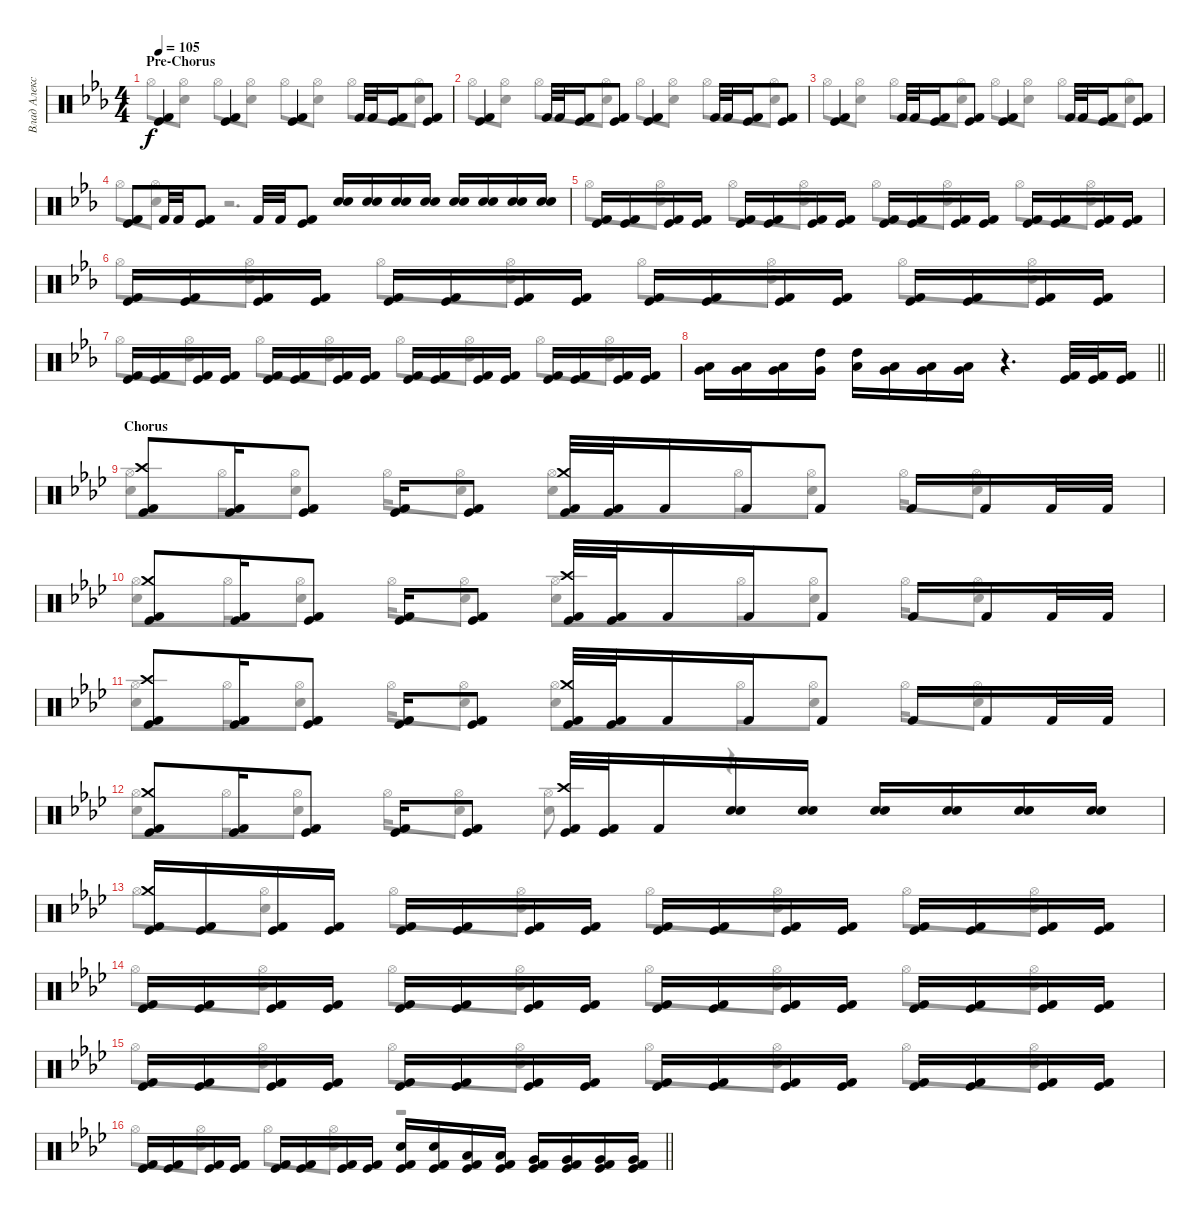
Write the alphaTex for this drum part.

\track ("Влад Алексеенко" "Влад Алекс") {instrument percussion}
\staff {score}
\articulation defaults
\voice
\ts (4 4)
\section ("" "Pre-Chorus")
\tempo 105
\clef neutral
\ks eb
("Kick (hit) 2" "Kick (hit)").4{dy f} ("Kick (hit) 2" "Kick (hit)").4 ("Kick (hit) 2" "Kick (hit)").4 "Kick (hit) 2".32 "Kick (hit) 2".32 ("Kick (hit) 2" "Kick (hit)").16 ("Kick (hit) 2" "Kick (hit)").8 |
("Kick (hit) 2" "Kick (hit)").4 "Kick (hit) 2".32 "Kick (hit) 2".32 ("Kick (hit) 2" "Kick (hit)").16 ("Kick (hit) 2" "Kick (hit)").8 ("Kick (hit) 2" "Kick (hit)").4 "Kick (hit) 2".32 "Kick (hit) 2".32 ("Kick (hit) 2" "Kick (hit)").16 ("Kick (hit) 2" "Kick (hit)").8 |
("Kick (hit) 2" "Kick (hit)").4 "Kick (hit) 2".32 "Kick (hit) 2".32 ("Kick (hit) 2" "Kick (hit)").16 ("Kick (hit) 2" "Kick (hit)").8 ("Kick (hit) 2" "Kick (hit)").4 "Kick (hit) 2".32 "Kick (hit) 2".32 ("Kick (hit) 2" "Kick (hit)").16 ("Kick (hit) 2" "Kick (hit)").8 |
("Kick (hit) 2" "Kick (hit)").8 "Kick (hit) 2".32 "Kick (hit) 2".32 ("Kick (hit) 2" "Kick (hit)").8 "Kick (hit) 2".32 "Kick (hit) 2".32 ("Kick (hit) 2" "Kick (hit)").8 ("Snare (hit) 2" "Snare (hit) 2").16 ("Snare (hit) 2" "Snare (hit) 2").16 ("Snare (hit) 2" "Snare (hit) 2").16 ("Snare (hit) 2" "Snare (hit) 2").16 ("Snare (hit) 2" "Snare (hit) 2").16 ("Snare (hit) 2" "Snare (hit) 2").16 ("Snare (hit) 2" "Snare (hit) 2").16 ("Snare (hit) 2" "Snare (hit) 2").16 |
("Kick (hit) 2" "Kick (hit)").16 ("Kick (hit) 2" "Kick (hit)").16 ("Kick (hit) 2" "Kick (hit)").16 ("Kick (hit) 2" "Kick (hit)").16 ("Kick (hit) 2" "Kick (hit)").16 ("Kick (hit) 2" "Kick (hit)").16 ("Kick (hit) 2" "Kick (hit)").16 ("Kick (hit) 2" "Kick (hit)").16 ("Kick (hit) 2" "Kick (hit)").16 ("Kick (hit) 2" "Kick (hit)").16 ("Kick (hit) 2" "Kick (hit)").16 ("Kick (hit) 2" "Kick (hit)").16 ("Kick (hit) 2" "Kick (hit)").16 ("Kick (hit) 2" "Kick (hit)").16 ("Kick (hit) 2" "Kick (hit)").16 ("Kick (hit) 2" "Kick (hit)").16 |
("Kick (hit) 2" "Kick (hit)").16 ("Kick (hit) 2" "Kick (hit)").16 ("Kick (hit) 2" "Kick (hit)").16 ("Kick (hit) 2" "Kick (hit)").16 ("Kick (hit) 2" "Kick (hit)").16 ("Kick (hit) 2" "Kick (hit)").16 ("Kick (hit) 2" "Kick (hit)").16 ("Kick (hit) 2" "Kick (hit)").16 ("Kick (hit) 2" "Kick (hit)").16 ("Kick (hit) 2" "Kick (hit)").16 ("Kick (hit) 2" "Kick (hit)").16 ("Kick (hit) 2" "Kick (hit)").16 ("Kick (hit) 2" "Kick (hit)").16 ("Kick (hit) 2" "Kick (hit)").16 ("Kick (hit) 2" "Kick (hit)").16 ("Kick (hit) 2" "Kick (hit)").16 |
("Kick (hit) 2" "Kick (hit)").16 ("Kick (hit) 2" "Kick (hit)").16 ("Kick (hit) 2" "Kick (hit)").16 ("Kick (hit) 2" "Kick (hit)").16 ("Kick (hit) 2" "Kick (hit)").16 ("Kick (hit) 2" "Kick (hit)").16 ("Kick (hit) 2" "Kick (hit)").16 ("Kick (hit) 2" "Kick (hit)").16 ("Kick (hit) 2" "Kick (hit)").16 ("Kick (hit) 2" "Kick (hit)").16 ("Kick (hit) 2" "Kick (hit)").16 ("Kick (hit) 2" "Kick (hit)").16 ("Kick (hit) 2" "Kick (hit)").16 ("Kick (hit) 2" "Kick (hit)").16 ("Kick (hit) 2" "Kick (hit)").16 ("Kick (hit) 2" "Kick (hit)").16 |
\barLineRight lightlight
("Low Tom (hit)" "Very Low Tom (hit)").16 ("Low Tom (hit)" "Very Low Tom (hit)").16 ("Very Low Tom (hit)" "Low Tom (hit)").16 ("Very Low Tom (hit)" "High Tom (hit)").16 ("Low Floor Tom (hit)" "High Tom (hit)").16 ("Very Low Tom (hit)" "Low Tom (hit)").16 ("Very Low Tom (hit)" "Low Tom (hit)").16 ("Low Tom (hit)" "Very Low Tom (hit)").16 r.4{d} ("Kick (hit) 2" "Kick (hit)").32 ("Kick (hit) 2" "Kick (hit)").32 ("Kick (hit) 2" "Kick (hit)").16 |
\section ("" "Chorus")
\ks ab
("Kick (hit) 2" "Kick (hit)" "Crash high (hit)").8 ("Kick (hit) 2" "Kick (hit)").16 ("Kick (hit) 2" "Kick (hit)").8 ("Kick (hit) 2" "Kick (hit)").16 ("Kick (hit) 2" "Kick (hit)").8 ("Kick (hit) 2" "Kick (hit)" "Crash medium (hit)").32 ("Kick (hit) 2" "Kick (hit)").32 "Kick (hit) 2".16 "Kick (hit) 2".16 "Kick (hit) 2".8 "Kick (hit) 2".16 "Kick (hit) 2".16 "Kick (hit) 2".32 "Kick (hit) 2".32 |
("Kick (hit) 2" "Kick (hit)" "Crash medium (hit)").8 ("Kick (hit) 2" "Kick (hit)").16 ("Kick (hit) 2" "Kick (hit)").8 ("Kick (hit) 2" "Kick (hit)").16 ("Kick (hit) 2" "Kick (hit)").8 ("Kick (hit) 2" "Kick (hit)" "Crash high (hit)").32 ("Kick (hit) 2" "Kick (hit)").32 "Kick (hit) 2".16 "Kick (hit) 2".16 "Kick (hit) 2".8 "Kick (hit) 2".16 "Kick (hit) 2".16 "Kick (hit) 2".32 "Kick (hit) 2".32 |
("Kick (hit) 2" "Kick (hit)" "Crash high (hit)").8 ("Kick (hit) 2" "Kick (hit)").16 ("Kick (hit) 2" "Kick (hit)").8 ("Kick (hit) 2" "Kick (hit)").16 ("Kick (hit) 2" "Kick (hit)").8 ("Kick (hit) 2" "Kick (hit)" "Crash medium (hit)").32 ("Kick (hit) 2" "Kick (hit)").32 "Kick (hit) 2".16 "Kick (hit) 2".16 "Kick (hit) 2".8 "Kick (hit) 2".16 "Kick (hit) 2".16 "Kick (hit) 2".32 "Kick (hit) 2".32 |
("Kick (hit) 2" "Kick (hit)" "Crash medium (hit)").8 ("Kick (hit) 2" "Kick (hit)").16 ("Kick (hit) 2" "Kick (hit)").8 ("Kick (hit) 2" "Kick (hit)").16 ("Kick (hit) 2" "Kick (hit)").8 ("Kick (hit) 2" "Kick (hit)" "Crash high (hit)").32 ("Kick (hit) 2" "Kick (hit)").32 "Kick (hit) 2".16 ("Snare (hit) 2" "Snare (hit) 2").16 ("Snare (hit) 2" "Snare (hit) 2").16 ("Snare (hit) 2" "Snare (hit) 2").16 ("Snare (hit) 2" "Snare (hit) 2").16 ("Snare (hit) 2" "Snare (hit) 2").16 ("Snare (hit) 2" "Snare (hit) 2").16 |
("Kick (hit) 2" "Kick (hit)" "Crash medium (hit)").16 ("Kick (hit) 2" "Kick (hit)").16 ("Kick (hit) 2" "Kick (hit)").16 ("Kick (hit) 2" "Kick (hit)").16 ("Kick (hit) 2" "Kick (hit)").16 ("Kick (hit) 2" "Kick (hit)").16 ("Kick (hit) 2" "Kick (hit)").16 ("Kick (hit) 2" "Kick (hit)").16 ("Kick (hit) 2" "Kick (hit)").16 ("Kick (hit) 2" "Kick (hit)").16 ("Kick (hit) 2" "Kick (hit)").16 ("Kick (hit) 2" "Kick (hit)").16 ("Kick (hit) 2" "Kick (hit)").16 ("Kick (hit) 2" "Kick (hit)").16 ("Kick (hit) 2" "Kick (hit)").16 ("Kick (hit) 2" "Kick (hit)").16 |
("Kick (hit) 2" "Kick (hit)").16 ("Kick (hit) 2" "Kick (hit)").16 ("Kick (hit) 2" "Kick (hit)").16 ("Kick (hit) 2" "Kick (hit)").16 ("Kick (hit) 2" "Kick (hit)").16 ("Kick (hit) 2" "Kick (hit)").16 ("Kick (hit) 2" "Kick (hit)").16 ("Kick (hit) 2" "Kick (hit)").16 ("Kick (hit) 2" "Kick (hit)").16 ("Kick (hit) 2" "Kick (hit)").16 ("Kick (hit) 2" "Kick (hit)").16 ("Kick (hit) 2" "Kick (hit)").16 ("Kick (hit) 2" "Kick (hit)").16 ("Kick (hit) 2" "Kick (hit)").16 ("Kick (hit) 2" "Kick (hit)").16 ("Kick (hit) 2" "Kick (hit)").16 |
("Kick (hit) 2" "Kick (hit)").16 ("Kick (hit) 2" "Kick (hit)").16 ("Kick (hit) 2" "Kick (hit)").16 ("Kick (hit) 2" "Kick (hit)").16 ("Kick (hit) 2" "Kick (hit)").16 ("Kick (hit) 2" "Kick (hit)").16 ("Kick (hit) 2" "Kick (hit)").16 ("Kick (hit) 2" "Kick (hit)").16 ("Kick (hit) 2" "Kick (hit)").16 ("Kick (hit) 2" "Kick (hit)").16 ("Kick (hit) 2" "Kick (hit)").16 ("Kick (hit) 2" "Kick (hit)").16 ("Kick (hit) 2" "Kick (hit)").16 ("Kick (hit) 2" "Kick (hit)").16 ("Kick (hit) 2" "Kick (hit)").16 ("Kick (hit) 2" "Kick (hit)").16 |
\barLineRight lightlight
("Kick (hit) 2" "Kick (hit)").16 ("Kick (hit) 2" "Kick (hit)").16 ("Kick (hit) 2" "Kick (hit)").16 ("Kick (hit) 2" "Kick (hit)").16 ("Kick (hit) 2" "Kick (hit)").16 ("Kick (hit) 2" "Kick (hit)").16 ("Kick (hit) 2" "Kick (hit)").16 ("Kick (hit) 2" "Kick (hit)").16 ("Kick (hit) 2" "Kick (hit)" "Snare (hit) 2").16 ("Kick (hit) 2" "Kick (hit)" "Snare (hit) 2").16 ("Kick (hit) 2" "Kick (hit)" "Low Tom (hit)").16 ("Kick (hit) 2" "Kick (hit)" "Low Tom (hit)").16 ("Kick (hit) 2" "Kick (hit)" "Very Low Tom (hit)").16 ("Kick (hit) 2" "Kick (hit)" "Very Low Tom (hit)").16 ("Kick (hit) 2" "Kick (hit)" "Very Low Tom (hit)").16 ("Kick (hit) 2" "Kick (hit)" "Very Low Tom (hit)").16
\voice
\clef neutral
\ottava regular
\simile none
\ks eb "Hi-Hat (open)".8{dy f}
("Hi-Hat (open)" "Snare (hit) 2").8 "Hi-Hat (open)".8 ("Hi-Hat (open)" "Snare (hit) 2").8 "Hi-Hat (open)".8 ("Hi-Hat (open)" "Snare (hit) 2").8 "Hi-Hat (open)".8 ("Hi-Hat (open)" "Snare (hit) 2").8 |
"Hi-Hat (open)".8 ("Hi-Hat (open)" "Snare (hit) 2").8 "Hi-Hat (open)".8 ("Hi-Hat (open)" "Snare (hit) 2").8 "Hi-Hat (open)".8 ("Hi-Hat (open)" "Snare (hit) 2").8 "Hi-Hat (open)".8 ("Hi-Hat (open)" "Snare (hit) 2").8 |
"Hi-Hat (open)".8 ("Hi-Hat (open)" "Snare (hit) 2").8 "Hi-Hat (open)".8 ("Hi-Hat (open)" "Snare (hit) 2").8 "Hi-Hat (open)".8 ("Hi-Hat (open)" "Snare (hit) 2").8 "Hi-Hat (open)".8 ("Hi-Hat (open)" "Snare (hit) 2").8 |
"Hi-Hat (open)".8 ("Hi-Hat (open)" "Snare (hit) 2").8 r.2{d} |
"Hi-Hat (open)".8 ("Hi-Hat (open)" "Snare (hit) 2").8 "Hi-Hat (open)".8 ("Hi-Hat (open)" "Snare (hit) 2").8 "Hi-Hat (open)".8 ("Hi-Hat (open)" "Snare (hit) 2").8 "Hi-Hat (open)".8 ("Hi-Hat (open)" "Snare (hit) 2").8 |
"Hi-Hat (open)".8 ("Hi-Hat (open)" "Snare (hit) 2").8 "Hi-Hat (open)".8 ("Hi-Hat (open)" "Snare (hit) 2").8 "Hi-Hat (open)".8 ("Hi-Hat (open)" "Snare (hit) 2").8 "Hi-Hat (open)".8 ("Hi-Hat (open)" "Snare (hit) 2").8 |
"Hi-Hat (open)".8 ("Hi-Hat (open)" "Snare (hit) 2").8 "Hi-Hat (open)".8 ("Hi-Hat (open)" "Snare (hit) 2").8 "Hi-Hat (open)".8 ("Hi-Hat (open)" "Snare (hit) 2").8 "Hi-Hat (open)".8 ("Hi-Hat (open)" "Snare (hit) 2").8 |
\barLineRight lightlight
|
\ks ab
("Snare (hit) 2" "Hi-Hat (open)").8 "Hi-Hat (open)".16 ("Snare (hit) 2" "Hi-Hat (open)").8 "Hi-Hat (open)".16 ("Snare (hit) 2" "Hi-Hat (open)").8 ("Snare (hit) 2" "Hi-Hat (open)").8 "Hi-Hat (open)".16 ("Snare (hit) 2" "Hi-Hat (open)").8 "Hi-Hat (open)".16 ("Snare (hit) 2" "Hi-Hat (open)").8 |
("Snare (hit) 2" "Hi-Hat (open)").8 "Hi-Hat (open)".16 ("Snare (hit) 2" "Hi-Hat (open)").8 "Hi-Hat (open)".16 ("Snare (hit) 2" "Hi-Hat (open)").8 ("Snare (hit) 2" "Hi-Hat (open)").8 "Hi-Hat (open)".16 ("Snare (hit) 2" "Hi-Hat (open)").8 "Hi-Hat (open)".16 ("Snare (hit) 2" "Hi-Hat (open)").8 |
("Snare (hit) 2" "Hi-Hat (open)").8 "Hi-Hat (open)".16 ("Snare (hit) 2" "Hi-Hat (open)").8 "Hi-Hat (open)".16 ("Snare (hit) 2" "Hi-Hat (open)").8 ("Snare (hit) 2" "Hi-Hat (open)").8 "Hi-Hat (open)".16 ("Snare (hit) 2" "Hi-Hat (open)").8 "Hi-Hat (open)".16 ("Snare (hit) 2" "Hi-Hat (open)").8 |
("Snare (hit) 2" "Hi-Hat (open)").8 "Hi-Hat (open)".16 ("Snare (hit) 2" "Hi-Hat (open)").8 "Hi-Hat (open)".16 ("Snare (hit) 2" "Hi-Hat (open)").8 ("Snare (hit) 2" "Hi-Hat (open)").8 r.4{d} |
"Hi-Hat (open)".8 ("Hi-Hat (open)" "Snare (hit) 2").8 "Hi-Hat (open)".8 ("Hi-Hat (open)" "Snare (hit) 2").8 "Hi-Hat (open)".8 ("Hi-Hat (open)" "Snare (hit) 2").8 "Hi-Hat (open)".8 ("Hi-Hat (open)" "Snare (hit) 2").8 |
"Hi-Hat (open)".8 ("Hi-Hat (open)" "Snare (hit) 2").8 "Hi-Hat (open)".8 ("Hi-Hat (open)" "Snare (hit) 2").8 "Hi-Hat (open)".8 ("Hi-Hat (open)" "Snare (hit) 2").8 "Hi-Hat (open)".8 ("Hi-Hat (open)" "Snare (hit) 2").8 |
"Hi-Hat (open)".8 ("Hi-Hat (open)" "Snare (hit) 2").8 "Hi-Hat (open)".8 ("Hi-Hat (open)" "Snare (hit) 2").8 "Hi-Hat (open)".8 ("Hi-Hat (open)" "Snare (hit) 2").8 "Hi-Hat (open)".8 ("Hi-Hat (open)" "Snare (hit) 2").8 |
\barLineRight lightlight "Hi-Hat (open)".8
("Hi-Hat (open)" "Snare (hit) 2").8 "Hi-Hat (open)".8 ("Hi-Hat (open)" "Snare (hit) 2").8 r.2
